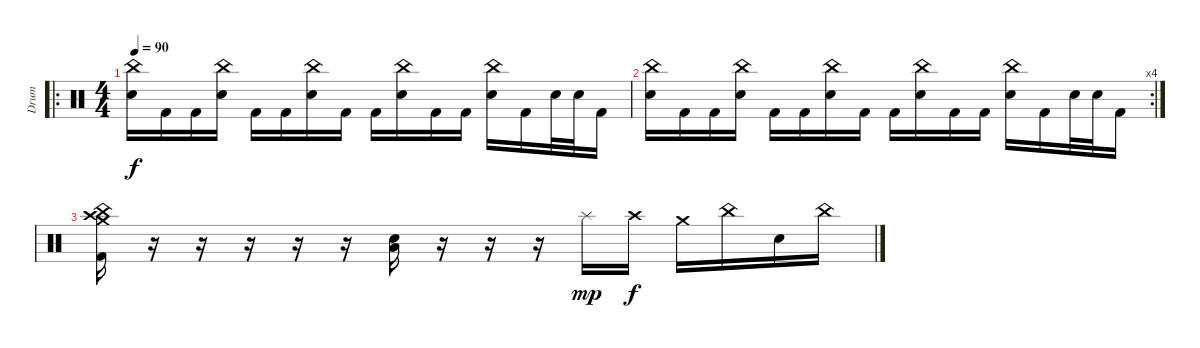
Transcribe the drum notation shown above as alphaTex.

\track ("Drum" "Drum") {instrument percussion}
\staff {score}
\articulation defaults
\ro
\ts (4 4)
\tempo 90
\clef neutral
\ks c
("China (hit)" "Electric Snare (hit)").16{dy f} "Kick (hit) 2".16 "Kick (hit) 2".16 ("China (hit)" "Electric Snare (hit)").16 "Kick (hit) 2".16 "Kick (hit) 2".16 ("China (hit)" "Electric Snare (hit)").16 "Kick (hit) 2".16 "Kick (hit) 2".16 ("China (hit)" "Electric Snare (hit)").16 "Kick (hit) 2".16 "Kick (hit) 2".16 ("China (hit)" "Electric Snare (hit)").16 "Kick (hit) 2".16 "Electric Snare (hit)".32 "Electric Snare (hit)".32 "Kick (hit) 2".16 |
\rc 4
("China (hit)" "Electric Snare (hit)").16 "Kick (hit) 2".16 "Kick (hit) 2".16 ("China (hit)" "Electric Snare (hit)").16 "Kick (hit) 2".16 "Kick (hit) 2".16 ("China (hit)" "Electric Snare (hit)").16 "Kick (hit) 2".16 "Kick (hit) 2".16 ("China (hit)" "Electric Snare (hit)").16 "Kick (hit) 2".16 "Kick (hit) 2".16 ("China (hit)" "Electric Snare (hit)").16 "Kick (hit) 2".16 "Electric Snare (hit)".32 "Electric Snare (hit)".32 "Kick (hit) 2".16 |
("Crash medium (hit)" "China (hit)" "Crash high (hit)" "Kick (hit) 2").16 r.16 r.16 r.16 r.16 r.16 ("Low Floor Tom (hit)" "Electric Snare (hit)").16 r.16 r.16 r.16 "Splash (hit)".16{dy mp} "Crash high (hit)".16{dy f} "Crash medium (hit)".16 "China (hit)".16 "Electric Snare (hit)".16 "China (hit)".16
